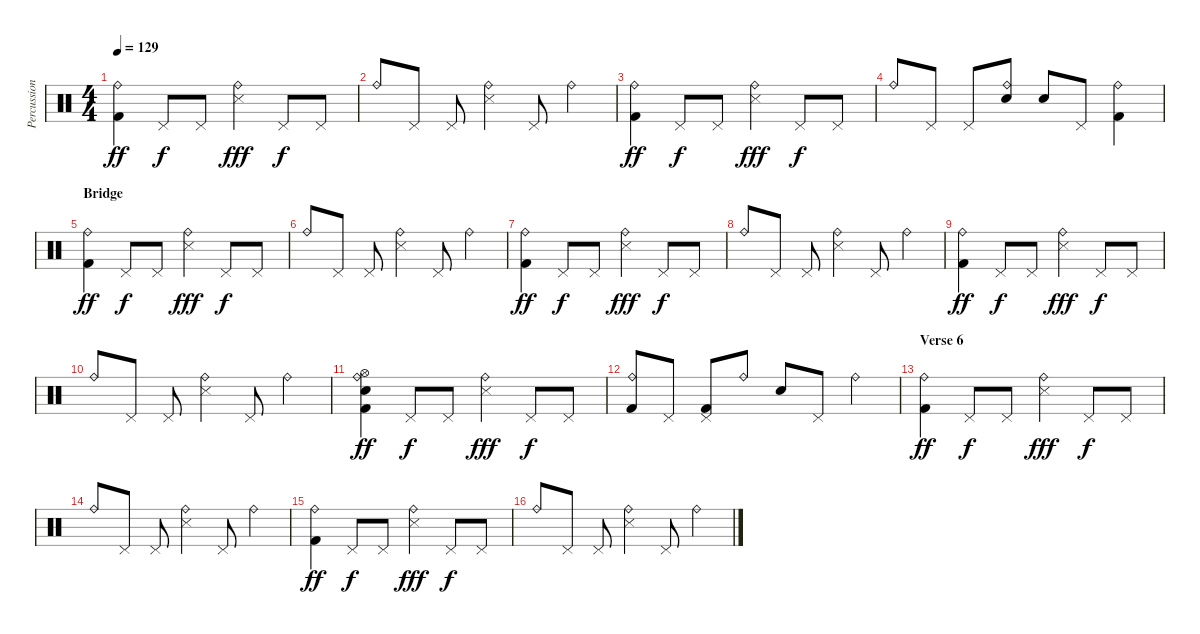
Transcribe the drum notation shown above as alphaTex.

\track ("Percussion" "Percussion") {instrument percussion}
\staff {score}
\articulation defaults
\ts (4 4)
\tempo 129
\clef neutral
\ks c
("Ride (bell)" "Kick (hit) 2").4{dy ff} "Pedal Hi-Hat (hit)".8{dy f} "Pedal Hi-Hat (hit)".8 ("Ride (bell)" "Snare (side stick) 3").4{dy fff} "Pedal Hi-Hat (hit)".8{dy f} "Pedal Hi-Hat (hit)".8 |
"Ride (bell)".8 "Pedal Hi-Hat (hit)".8 "Pedal Hi-Hat (hit)".8 ("Ride (bell)" "Snare (side stick) 3").4 "Pedal Hi-Hat (hit)".8 "Ride (bell)".4 |
("Ride (bell)" "Kick (hit) 2").4{dy ff} "Pedal Hi-Hat (hit)".8{dy f} "Pedal Hi-Hat (hit)".8 ("Ride (bell)" "Snare (side stick) 3").4{dy fff} "Pedal Hi-Hat (hit)".8{dy f} "Pedal Hi-Hat (hit)".8 |
"Ride (bell)".8 "Pedal Hi-Hat (hit)".8 "Pedal Hi-Hat (hit)".8 ("Ride (bell)" "Electric Snare (hit)").8 "Electric Snare (hit)".8 "Pedal Hi-Hat (hit)".8 ("Ride (bell)" "Kick (hit) 2").4 |
\section ("" "Bridge")
("Ride (bell)" "Kick (hit) 2").4{dy ff} "Pedal Hi-Hat (hit)".8{dy f} "Pedal Hi-Hat (hit)".8 ("Ride (bell)" "Snare (side stick) 3").4{dy fff} "Pedal Hi-Hat (hit)".8{dy f} "Pedal Hi-Hat (hit)".8 |
"Ride (bell)".8 "Pedal Hi-Hat (hit)".8 "Pedal Hi-Hat (hit)".8 ("Ride (bell)" "Snare (side stick) 3").4 "Pedal Hi-Hat (hit)".8 "Ride (bell)".4 |
("Ride (bell)" "Kick (hit) 2").4{dy ff} "Pedal Hi-Hat (hit)".8{dy f} "Pedal Hi-Hat (hit)".8 ("Ride (bell)" "Snare (side stick) 3").4{dy fff} "Pedal Hi-Hat (hit)".8{dy f} "Pedal Hi-Hat (hit)".8 |
"Ride (bell)".8 "Pedal Hi-Hat (hit)".8 "Pedal Hi-Hat (hit)".8 ("Ride (bell)" "Snare (side stick) 3").4 "Pedal Hi-Hat (hit)".8 "Ride (bell)".4 |
("Ride (bell)" "Kick (hit) 2").4{dy ff} "Pedal Hi-Hat (hit)".8{dy f} "Pedal Hi-Hat (hit)".8 ("Ride (bell)" "Snare (side stick) 3").4{dy fff} "Pedal Hi-Hat (hit)".8{dy f} "Pedal Hi-Hat (hit)".8 |
"Ride (bell)".8 "Pedal Hi-Hat (hit)".8 "Pedal Hi-Hat (hit)".8 ("Ride (bell)" "Snare (side stick) 3").4 "Pedal Hi-Hat (hit)".8 "Ride (bell)".4 |
("Ride (bell)" "Electric Snare (hit)" "Kick (hit) 2" "Hi-Hat (open)").4{dy ff} "Pedal Hi-Hat (hit)".8{dy f} "Pedal Hi-Hat (hit)".8 ("Ride (bell)" "Snare (side stick) 3").4{dy fff} "Pedal Hi-Hat (hit)".8{dy f} "Pedal Hi-Hat (hit)".8 |
("Ride (bell)" "Kick (hit) 2").8 "Pedal Hi-Hat (hit)".8 ("Pedal Hi-Hat (hit)" "Kick (hit) 2").8 "Ride (bell)".8 "Snare (hit) 2".8 "Pedal Hi-Hat (hit)".8 "Ride (bell)".4 |
\section ("" "Verse 6")
("Ride (bell)" "Kick (hit) 2").4{dy ff} "Pedal Hi-Hat (hit)".8{dy f} "Pedal Hi-Hat (hit)".8 ("Ride (bell)" "Snare (side stick) 3").4{dy fff} "Pedal Hi-Hat (hit)".8{dy f} "Pedal Hi-Hat (hit)".8 |
"Ride (bell)".8 "Pedal Hi-Hat (hit)".8 "Pedal Hi-Hat (hit)".8 ("Ride (bell)" "Snare (side stick) 3").4 "Pedal Hi-Hat (hit)".8 "Ride (bell)".4 |
("Ride (bell)" "Kick (hit) 2").4{dy ff} "Pedal Hi-Hat (hit)".8{dy f} "Pedal Hi-Hat (hit)".8 ("Ride (bell)" "Snare (side stick) 3").4{dy fff} "Pedal Hi-Hat (hit)".8{dy f} "Pedal Hi-Hat (hit)".8 |
"Ride (bell)".8 "Pedal Hi-Hat (hit)".8 "Pedal Hi-Hat (hit)".8 ("Ride (bell)" "Snare (side stick) 3").4 "Pedal Hi-Hat (hit)".8 "Ride (bell)".4
